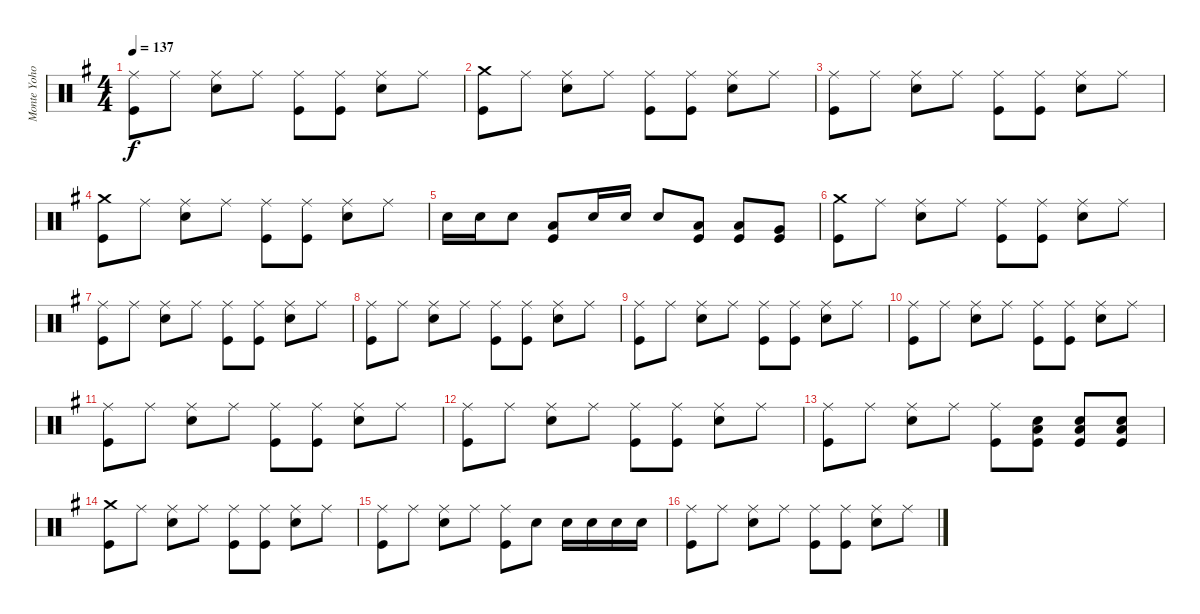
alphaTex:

\track ("Monte Yoho Drums" "Monte Yoho") {instrument percussion}
\staff {score}
\articulation defaults
\ts (4 4)
\tempo 137
\clef neutral
\ks g
("Ride (middle)" "Kick (hit)").8{dy f} "Ride (middle)".8 ("Ride (middle)" "Snare (hit) 2").8 "Ride (middle)".8 ("Ride (middle)" "Kick (hit)").8 ("Ride (middle)" "Kick (hit)").8 ("Ride (middle)" "Snare (hit) 2").8 "Ride (middle)".8 |
("Crash medium (hit)" "Kick (hit)").8 "Ride (middle)".8 ("Ride (middle)" "Snare (hit) 2").8 "Ride (middle)".8 ("Ride (middle)" "Kick (hit)").8 ("Ride (middle)" "Kick (hit)").8 ("Ride (middle)" "Snare (hit) 2").8 "Ride (middle)".8 |
("Ride (middle)" "Kick (hit)").8 "Ride (middle)".8 ("Ride (middle)" "Snare (hit) 2").8 "Ride (middle)".8 ("Ride (middle)" "Kick (hit)").8 ("Ride (middle)" "Kick (hit)").8 ("Ride (middle)" "Snare (hit) 2").8 "Ride (middle)".8 |
("Crash medium (hit)" "Kick (hit)").8 "Ride (middle)".8 ("Ride (middle)" "Snare (hit) 2").8 "Ride (middle)".8 ("Ride (middle)" "Kick (hit)").8 ("Ride (middle)" "Kick (hit)").8 ("Ride (middle)" "Snare (hit) 2").8 "Ride (middle)".8 |
"Snare (hit) 2".16 "Snare (hit) 2".16 "Snare (hit) 2".8 ("Low Tom (hit)" "Kick (hit)").8 "Snare (hit) 2".16 "Snare (hit) 2".16 "Snare (hit) 2".8 ("Low Tom (hit)" "Kick (hit)").8 ("Low Tom (hit)" "Kick (hit)").8 ("Very Low Tom (hit)" "Kick (hit)").8 |
("Crash medium (hit)" "Kick (hit)").8 "Ride (middle)".8 ("Ride (middle)" "Snare (hit) 2").8 "Ride (middle)".8 ("Ride (middle)" "Kick (hit)").8 ("Ride (middle)" "Kick (hit)").8 ("Ride (middle)" "Snare (hit) 2").8 "Ride (middle)".8 |
("Ride (middle)" "Kick (hit)").8 "Ride (middle)".8 ("Ride (middle)" "Snare (hit) 2").8 "Ride (middle)".8 ("Ride (middle)" "Kick (hit)").8 ("Ride (middle)" "Kick (hit)").8 ("Ride (middle)" "Snare (hit) 2").8 "Ride (middle)".8 |
("Ride (middle)" "Kick (hit)").8 "Ride (middle)".8 ("Ride (middle)" "Snare (hit) 2").8 "Ride (middle)".8 ("Ride (middle)" "Kick (hit)").8 ("Ride (middle)" "Kick (hit)").8 ("Ride (middle)" "Snare (hit) 2").8 "Ride (middle)".8 |
("Ride (middle)" "Kick (hit)").8 "Ride (middle)".8 ("Ride (middle)" "Snare (hit) 2").8 "Ride (middle)".8 ("Ride (middle)" "Kick (hit)").8 ("Ride (middle)" "Kick (hit)").8 ("Ride (middle)" "Snare (hit) 2").8 "Ride (middle)".8 |
("Ride (middle)" "Kick (hit)").8 "Ride (middle)".8 ("Ride (middle)" "Snare (hit) 2").8 "Ride (middle)".8 ("Ride (middle)" "Kick (hit)").8 ("Ride (middle)" "Kick (hit)").8 ("Ride (middle)" "Snare (hit) 2").8 "Ride (middle)".8 |
("Ride (middle)" "Kick (hit)").8 "Ride (middle)".8 ("Ride (middle)" "Snare (hit) 2").8 "Ride (middle)".8 ("Ride (middle)" "Kick (hit)").8 ("Ride (middle)" "Kick (hit)").8 ("Ride (middle)" "Snare (hit) 2").8 "Ride (middle)".8 |
("Ride (middle)" "Kick (hit)").8 "Ride (middle)".8 ("Ride (middle)" "Snare (hit) 2").8 "Ride (middle)".8 ("Ride (middle)" "Kick (hit)").8 ("Ride (middle)" "Kick (hit)").8 ("Ride (middle)" "Snare (hit) 2").8 "Ride (middle)".8 |
("Ride (middle)" "Kick (hit)").8 "Ride (middle)".8 ("Ride (middle)" "Snare (hit) 2").8 "Ride (middle)".8 ("Ride (middle)" "Kick (hit)").8 ("Snare (hit) 2" "Low Tom (hit)" "Kick (hit)").8 ("Snare (hit) 2" "Low Tom (hit)" "Kick (hit)").8 ("Snare (hit) 2" "Low Tom (hit)" "Kick (hit)").8 |
("Crash medium (hit)" "Kick (hit)").8 "Ride (middle)".8 ("Ride (middle)" "Snare (hit) 2").8 "Ride (middle)".8 ("Ride (middle)" "Kick (hit)").8 ("Ride (middle)" "Kick (hit)").8 ("Ride (middle)" "Snare (hit) 2").8 "Ride (middle)".8 |
("Ride (middle)" "Kick (hit)").8 "Ride (middle)".8 ("Ride (middle)" "Snare (hit) 2").8 "Ride (middle)".8 ("Ride (middle)" "Kick (hit)").8 "Snare (hit) 2".8 "Snare (hit) 2".16 "Snare (hit) 2".16 "Snare (hit) 2".16 "Snare (hit) 2".16 |
("Ride (middle)" "Kick (hit)").8 "Ride (middle)".8 ("Ride (middle)" "Snare (hit) 2").8 "Ride (middle)".8 ("Ride (middle)" "Kick (hit)").8 ("Ride (middle)" "Kick (hit)").8 ("Ride (middle)" "Snare (hit) 2").8 "Ride (middle)".8
